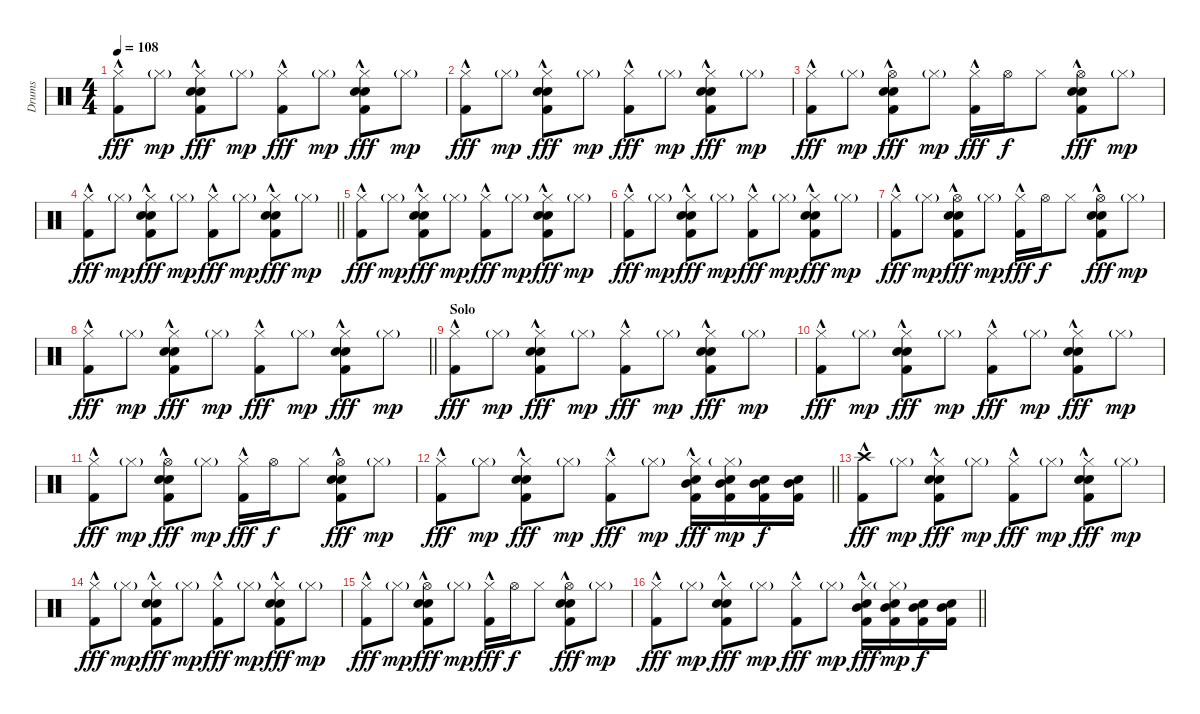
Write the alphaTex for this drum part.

\track ("Drums" "Drums") {instrument percussion}
\staff {score}
\articulation defaults
\ts (4 4)
\tempo 108
\clef neutral
\ks c
("Hi-Hat (closed)" "Kick (hit) 2"{hac}).8{dy fff} "Hi-Hat (closed)"{g}.8{dy mp} ("Hi-Hat (closed)" "Snare (hit) 2" "Snare (hit) 2" "Kick (hit) 2"{hac}).8{dy fff} "Hi-Hat (closed)"{g}.8{dy mp} ("Hi-Hat (closed)" "Kick (hit) 2"{hac}).8{dy fff} "Hi-Hat (closed)"{g}.8{dy mp} ("Hi-Hat (closed)" "Snare (hit) 2" "Snare (hit) 2" "Kick (hit) 2"{hac}).8{dy fff} "Hi-Hat (closed)"{g}.8{dy mp} |
("Hi-Hat (closed)" "Kick (hit) 2"{hac}).8{dy fff} "Hi-Hat (closed)"{g}.8{dy mp} ("Hi-Hat (closed)" "Snare (hit) 2" "Snare (hit) 2" "Kick (hit) 2"{hac}).8{dy fff} "Hi-Hat (closed)"{g}.8{dy mp} ("Hi-Hat (closed)" "Kick (hit) 2"{hac}).8{dy fff} "Hi-Hat (closed)"{g}.8{dy mp} ("Hi-Hat (closed)" "Snare (hit) 2" "Snare (hit) 2" "Kick (hit) 2"{hac}).8{dy fff} "Hi-Hat (closed)"{g}.8{dy mp} |
("Hi-Hat (closed)" "Kick (hit) 2"{hac}).8{dy fff} "Hi-Hat (closed)"{g}.8{dy mp} ("Hi-Hat (open)" "Snare (hit) 2" "Snare (hit) 2" "Kick (hit) 2"{hac}).8{dy fff} "Hi-Hat (closed)"{g}.8{dy mp} ("Hi-Hat (closed)" "Kick (hit) 2"{hac}).16{dy fff} "Hi-Hat (open)".16{dy f} "Hi-Hat (closed)".8 ("Hi-Hat (open)" "Snare (hit) 2" "Snare (hit) 2" "Kick (hit) 2"{hac}).8{dy fff} "Hi-Hat (closed)"{g}.8{dy mp} |
\barLineRight lightlight
("Hi-Hat (closed)" "Kick (hit) 2"{hac}).8{dy fff} "Hi-Hat (closed)"{g}.8{dy mp} ("Hi-Hat (closed)" "Snare (hit) 2" "Snare (hit) 2" "Kick (hit) 2"{hac}).8{dy fff} "Hi-Hat (closed)"{g}.8{dy mp} ("Hi-Hat (closed)" "Kick (hit) 2"{hac}).8{dy fff} "Hi-Hat (closed)"{g}.8{dy mp} ("Hi-Hat (closed)" "Snare (hit) 2" "Snare (hit) 2" "Kick (hit) 2"{hac}).8{dy fff} "Hi-Hat (closed)"{g}.8{dy mp} |
("Hi-Hat (closed)" "Kick (hit) 2"{hac}).8{dy fff} "Hi-Hat (closed)"{g}.8{dy mp} ("Hi-Hat (closed)" "Snare (hit) 2" "Snare (hit) 2" "Kick (hit) 2"{hac}).8{dy fff} "Hi-Hat (closed)"{g}.8{dy mp} ("Hi-Hat (closed)" "Kick (hit) 2"{hac}).8{dy fff} "Hi-Hat (closed)"{g}.8{dy mp} ("Hi-Hat (closed)" "Snare (hit) 2" "Snare (hit) 2" "Kick (hit) 2"{hac}).8{dy fff} "Hi-Hat (closed)"{g}.8{dy mp} |
("Hi-Hat (closed)" "Kick (hit) 2"{hac}).8{dy fff} "Hi-Hat (closed)"{g}.8{dy mp} ("Hi-Hat (closed)" "Snare (hit) 2" "Snare (hit) 2" "Kick (hit) 2"{hac}).8{dy fff} "Hi-Hat (closed)"{g}.8{dy mp} ("Hi-Hat (closed)" "Kick (hit) 2"{hac}).8{dy fff} "Hi-Hat (closed)"{g}.8{dy mp} ("Hi-Hat (closed)" "Snare (hit) 2" "Snare (hit) 2" "Kick (hit) 2"{hac}).8{dy fff} "Hi-Hat (closed)"{g}.8{dy mp} |
("Hi-Hat (closed)" "Kick (hit) 2"{hac}).8{dy fff} "Hi-Hat (closed)"{g}.8{dy mp} ("Hi-Hat (open)" "Snare (hit) 2" "Snare (hit) 2" "Kick (hit) 2"{hac}).8{dy fff} "Hi-Hat (closed)"{g}.8{dy mp} ("Hi-Hat (closed)" "Kick (hit) 2"{hac}).16{dy fff} "Hi-Hat (open)".16{dy f} "Hi-Hat (closed)".8 ("Hi-Hat (open)" "Snare (hit) 2" "Snare (hit) 2" "Kick (hit) 2"{hac}).8{dy fff} "Hi-Hat (closed)"{g}.8{dy mp} |
\barLineRight lightlight
("Hi-Hat (closed)" "Kick (hit) 2"{hac}).8{dy fff} "Hi-Hat (closed)"{g}.8{dy mp} ("Hi-Hat (closed)" "Snare (hit) 2" "Snare (hit) 2" "Kick (hit) 2"{hac}).8{dy fff} "Hi-Hat (closed)"{g}.8{dy mp} ("Hi-Hat (closed)" "Kick (hit) 2"{hac}).8{dy fff} "Hi-Hat (closed)"{g}.8{dy mp} ("Hi-Hat (closed)" "Snare (hit) 2" "Snare (hit) 2" "Kick (hit) 2"{hac}).8{dy fff} "Hi-Hat (closed)"{g}.8{dy mp} |
\section ("" "Solo")
("Hi-Hat (closed)" "Kick (hit) 2"{hac}).8{dy fff} "Hi-Hat (closed)"{g}.8{dy mp} ("Hi-Hat (closed)" "Snare (hit) 2" "Snare (hit) 2" "Kick (hit) 2"{hac}).8{dy fff} "Hi-Hat (closed)"{g}.8{dy mp} ("Hi-Hat (closed)" "Kick (hit) 2"{hac}).8{dy fff} "Hi-Hat (closed)"{g}.8{dy mp} ("Hi-Hat (closed)" "Snare (hit) 2" "Snare (hit) 2" "Kick (hit) 2"{hac}).8{dy fff} "Hi-Hat (closed)"{g}.8{dy mp} |
("Hi-Hat (closed)" "Kick (hit) 2"{hac}).8{dy fff} "Hi-Hat (closed)"{g}.8{dy mp} ("Hi-Hat (closed)" "Snare (hit) 2" "Snare (hit) 2" "Kick (hit) 2"{hac}).8{dy fff} "Hi-Hat (closed)"{g}.8{dy mp} ("Hi-Hat (closed)" "Kick (hit) 2"{hac}).8{dy fff} "Hi-Hat (closed)"{g}.8{dy mp} ("Hi-Hat (closed)" "Snare (hit) 2" "Snare (hit) 2" "Kick (hit) 2"{hac}).8{dy fff} "Hi-Hat (closed)"{g}.8{dy mp} |
("Hi-Hat (closed)" "Kick (hit) 2"{hac}).8{dy fff} "Hi-Hat (closed)"{g}.8{dy mp} ("Hi-Hat (open)" "Snare (hit) 2" "Snare (hit) 2" "Kick (hit) 2"{hac}).8{dy fff} "Hi-Hat (closed)"{g}.8{dy mp} ("Hi-Hat (closed)" "Kick (hit) 2"{hac}).16{dy fff} "Hi-Hat (open)".16{dy f} "Hi-Hat (closed)".8 ("Hi-Hat (open)" "Snare (hit) 2" "Snare (hit) 2" "Kick (hit) 2"{hac}).8{dy fff} "Hi-Hat (closed)"{g}.8{dy mp} |
\barLineRight lightlight
("Hi-Hat (closed)" "Kick (hit) 2"{hac}).8{dy fff} "Hi-Hat (closed)"{g}.8{dy mp} ("Hi-Hat (closed)" "Snare (hit) 2" "Snare (hit) 2" "Kick (hit) 2"{hac}).8{dy fff} "Hi-Hat (closed)"{g}.8{dy mp} ("Hi-Hat (closed)" "Kick (hit) 2"{hac}).8{dy fff} "Hi-Hat (closed)"{g}.8{dy mp} ("Hi-Hat (closed)" "Mid Tom (hit)" "Snare (hit) 2" "Kick (hit) 2"{hac}).16{dy fff} ("Hi-Hat (closed)"{g} "Mid Tom (hit)" "Snare (hit) 2" "Kick (hit) 2").16{dy mp} ("Mid Tom (hit)" "Snare (hit) 2" "Kick (hit) 2").16{dy f} ("Mid Tom (hit)" "Snare (hit) 2" "Kick (hit) 2").16 |
("Crash high (hit)" "Kick (hit) 2"{hac}).8{dy fff} "Hi-Hat (closed)"{g}.8{dy mp} ("Hi-Hat (closed)" "Snare (hit) 2" "Snare (hit) 2" "Kick (hit) 2"{hac}).8{dy fff} "Hi-Hat (closed)"{g}.8{dy mp} ("Hi-Hat (closed)" "Kick (hit) 2"{hac}).8{dy fff} "Hi-Hat (closed)"{g}.8{dy mp} ("Hi-Hat (closed)" "Snare (hit) 2" "Snare (hit) 2" "Kick (hit) 2"{hac}).8{dy fff} "Hi-Hat (closed)"{g}.8{dy mp} |
("Hi-Hat (closed)" "Kick (hit) 2"{hac}).8{dy fff} "Hi-Hat (closed)"{g}.8{dy mp} ("Hi-Hat (closed)" "Snare (hit) 2" "Snare (hit) 2" "Kick (hit) 2"{hac}).8{dy fff} "Hi-Hat (closed)"{g}.8{dy mp} ("Hi-Hat (closed)" "Kick (hit) 2"{hac}).8{dy fff} "Hi-Hat (closed)"{g}.8{dy mp} ("Hi-Hat (closed)" "Snare (hit) 2" "Snare (hit) 2" "Kick (hit) 2"{hac}).8{dy fff} "Hi-Hat (closed)"{g}.8{dy mp} |
("Hi-Hat (closed)" "Kick (hit) 2"{hac}).8{dy fff} "Hi-Hat (closed)"{g}.8{dy mp} ("Hi-Hat (open)" "Snare (hit) 2" "Snare (hit) 2" "Kick (hit) 2"{hac}).8{dy fff} "Hi-Hat (closed)"{g}.8{dy mp} ("Hi-Hat (closed)" "Kick (hit) 2"{hac}).16{dy fff} "Hi-Hat (open)".16{dy f} "Hi-Hat (closed)".8 ("Hi-Hat (open)" "Snare (hit) 2" "Snare (hit) 2" "Kick (hit) 2"{hac}).8{dy fff} "Hi-Hat (closed)"{g}.8{dy mp} |
\barLineRight lightlight
("Hi-Hat (closed)" "Kick (hit) 2"{hac}).8{dy fff} "Hi-Hat (closed)"{g}.8{dy mp} ("Hi-Hat (closed)" "Snare (hit) 2" "Snare (hit) 2" "Kick (hit) 2"{hac}).8{dy fff} "Hi-Hat (closed)"{g}.8{dy mp} ("Hi-Hat (closed)" "Kick (hit) 2"{hac}).8{dy fff} "Hi-Hat (closed)"{g}.8{dy mp} ("Hi-Hat (closed)" "Mid Tom (hit)" "Snare (hit) 2" "Kick (hit) 2"{hac}).16{dy fff} ("Hi-Hat (closed)"{g} "Mid Tom (hit)" "Snare (hit) 2" "Kick (hit) 2").16{dy mp} ("Mid Tom (hit)" "Snare (hit) 2" "Kick (hit) 2").16{dy f} ("Mid Tom (hit)" "Snare (hit) 2" "Kick (hit) 2").16
